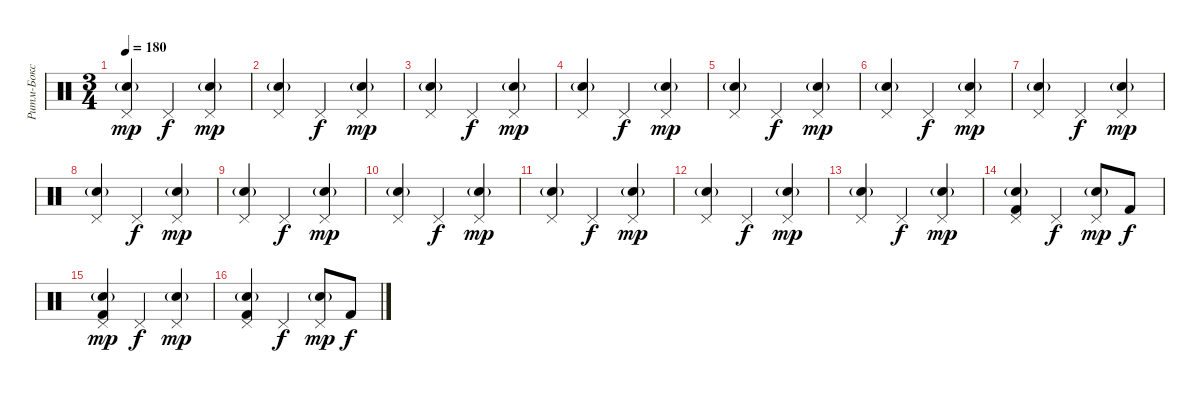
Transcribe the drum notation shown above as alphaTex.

\track ("Ритм-Бокс" "Ритм-Бокс") {instrument percussion}
\staff {score}
\articulation defaults
\ts (3 4)
\tempo 180
\clef neutral
\ks c
("Pedal Hi-Hat (hit)" "Electric Snare (hit)"{g}).4{dy mp} "Pedal Hi-Hat (hit)".4{dy f} ("Pedal Hi-Hat (hit)" "Electric Snare (hit)"{g}).4{dy mp} |
("Pedal Hi-Hat (hit)" "Electric Snare (hit)"{g}).4 "Pedal Hi-Hat (hit)".4{dy f} ("Pedal Hi-Hat (hit)" "Electric Snare (hit)"{g}).4{dy mp} |
("Pedal Hi-Hat (hit)" "Electric Snare (hit)"{g}).4 "Pedal Hi-Hat (hit)".4{dy f} ("Pedal Hi-Hat (hit)" "Electric Snare (hit)"{g}).4{dy mp} |
("Pedal Hi-Hat (hit)" "Electric Snare (hit)"{g}).4 "Pedal Hi-Hat (hit)".4{dy f} ("Pedal Hi-Hat (hit)" "Electric Snare (hit)"{g}).4{dy mp} |
("Pedal Hi-Hat (hit)" "Electric Snare (hit)"{g}).4 "Pedal Hi-Hat (hit)".4{dy f} ("Pedal Hi-Hat (hit)" "Electric Snare (hit)"{g}).4{dy mp} |
("Pedal Hi-Hat (hit)" "Electric Snare (hit)"{g}).4 "Pedal Hi-Hat (hit)".4{dy f} ("Pedal Hi-Hat (hit)" "Electric Snare (hit)"{g}).4{dy mp} |
("Pedal Hi-Hat (hit)" "Electric Snare (hit)"{g}).4 "Pedal Hi-Hat (hit)".4{dy f} ("Pedal Hi-Hat (hit)" "Electric Snare (hit)"{g}).4{dy mp} |
("Pedal Hi-Hat (hit)" "Electric Snare (hit)"{g}).4 "Pedal Hi-Hat (hit)".4{dy f} ("Pedal Hi-Hat (hit)" "Electric Snare (hit)"{g}).4{dy mp} |
("Pedal Hi-Hat (hit)" "Electric Snare (hit)"{g}).4 "Pedal Hi-Hat (hit)".4{dy f} ("Pedal Hi-Hat (hit)" "Electric Snare (hit)"{g}).4{dy mp} |
("Pedal Hi-Hat (hit)" "Electric Snare (hit)"{g}).4 "Pedal Hi-Hat (hit)".4{dy f} ("Pedal Hi-Hat (hit)" "Electric Snare (hit)"{g}).4{dy mp} |
("Pedal Hi-Hat (hit)" "Electric Snare (hit)"{g}).4 "Pedal Hi-Hat (hit)".4{dy f} ("Pedal Hi-Hat (hit)" "Electric Snare (hit)"{g}).4{dy mp} |
("Pedal Hi-Hat (hit)" "Electric Snare (hit)"{g}).4 "Pedal Hi-Hat (hit)".4{dy f} ("Pedal Hi-Hat (hit)" "Electric Snare (hit)"{g}).4{dy mp} |
("Pedal Hi-Hat (hit)" "Electric Snare (hit)"{g}).4 "Pedal Hi-Hat (hit)".4{dy f} ("Pedal Hi-Hat (hit)" "Electric Snare (hit)"{g}).4{dy mp} |
("Pedal Hi-Hat (hit)" "Electric Snare (hit)"{g} "Kick (hit) 2").4 "Pedal Hi-Hat (hit)".4{dy f} ("Pedal Hi-Hat (hit)" "Electric Snare (hit)"{g}).8{dy mp} "Kick (hit) 2".8{dy f} |
("Pedal Hi-Hat (hit)" "Electric Snare (hit)"{g} "Kick (hit) 2").4{dy mp} "Pedal Hi-Hat (hit)".4{dy f} ("Pedal Hi-Hat (hit)" "Electric Snare (hit)"{g}).4{dy mp} |
("Pedal Hi-Hat (hit)" "Electric Snare (hit)"{g} "Kick (hit) 2").4 "Pedal Hi-Hat (hit)".4{dy f} ("Pedal Hi-Hat (hit)" "Electric Snare (hit)"{g}).8{dy mp} "Kick (hit) 2".8{dy f}
